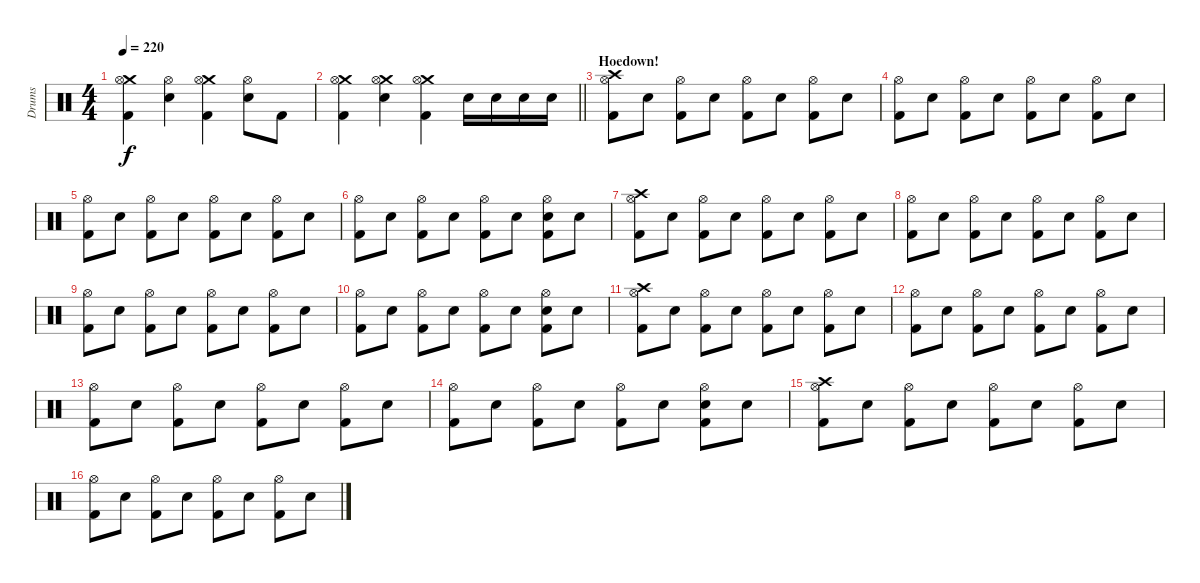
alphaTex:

\track ("Drums" "Drums") {instrument percussion}
\staff {score}
\articulation defaults
\ts (4 4)
\tempo 220
\clef neutral
\ks c
("Crash medium (hit)" "Hi-Hat (open)" "Kick (hit) 2").4{dy f} ("Hi-Hat (open)" "Snare (hit) 2").4 ("Crash medium (hit)" "Hi-Hat (open)" "Kick (hit) 2").4 ("Hi-Hat (open)" "Snare (hit) 2").8 "Kick (hit) 2".8 |
\barLineRight lightlight
("Crash medium (hit)" "Hi-Hat (open)" "Kick (hit) 2").4 ("Crash medium (hit)" "Hi-Hat (open)" "Snare (hit) 2").4 ("Crash medium (hit)" "Hi-Hat (open)" "Kick (hit) 2").4 "Snare (hit) 2".16 "Snare (hit) 2".16 "Snare (hit) 2".16 "Snare (hit) 2".16 |
\section ("" "Hoedown!")
("Crash high (hit)" "Hi-Hat (open)" "Kick (hit) 2").8 "Snare (hit) 2".8 ("Hi-Hat (open)" "Kick (hit) 2").8 "Snare (hit) 2".8 ("Hi-Hat (open)" "Kick (hit) 2").8 "Snare (hit) 2".8 ("Hi-Hat (open)" "Kick (hit) 2").8 "Snare (hit) 2".8 |
("Hi-Hat (open)" "Kick (hit) 2").8 "Snare (hit) 2".8 ("Hi-Hat (open)" "Kick (hit) 2").8 "Snare (hit) 2".8 ("Hi-Hat (open)" "Kick (hit) 2").8 "Snare (hit) 2".8 ("Hi-Hat (open)" "Kick (hit) 2").8 "Snare (hit) 2".8 |
("Hi-Hat (open)" "Kick (hit) 2").8 "Snare (hit) 2".8 ("Hi-Hat (open)" "Kick (hit) 2").8 "Snare (hit) 2".8 ("Hi-Hat (open)" "Kick (hit) 2").8 "Snare (hit) 2".8 ("Hi-Hat (open)" "Kick (hit) 2").8 "Snare (hit) 2".8 |
("Hi-Hat (open)" "Kick (hit) 2").8 "Snare (hit) 2".8 ("Hi-Hat (open)" "Kick (hit) 2").8 "Snare (hit) 2".8 ("Hi-Hat (open)" "Kick (hit) 2").8 "Snare (hit) 2".8 ("Hi-Hat (open)" "Snare (hit) 2" "Kick (hit) 2").8 "Snare (hit) 2".8 |
("Crash high (hit)" "Hi-Hat (open)" "Kick (hit) 2").8 "Snare (hit) 2".8 ("Hi-Hat (open)" "Kick (hit) 2").8 "Snare (hit) 2".8 ("Hi-Hat (open)" "Kick (hit) 2").8 "Snare (hit) 2".8 ("Hi-Hat (open)" "Kick (hit) 2").8 "Snare (hit) 2".8 |
("Hi-Hat (open)" "Kick (hit) 2").8 "Snare (hit) 2".8 ("Hi-Hat (open)" "Kick (hit) 2").8 "Snare (hit) 2".8 ("Hi-Hat (open)" "Kick (hit) 2").8 "Snare (hit) 2".8 ("Hi-Hat (open)" "Kick (hit) 2").8 "Snare (hit) 2".8 |
("Hi-Hat (open)" "Kick (hit) 2").8 "Snare (hit) 2".8 ("Hi-Hat (open)" "Kick (hit) 2").8 "Snare (hit) 2".8 ("Hi-Hat (open)" "Kick (hit) 2").8 "Snare (hit) 2".8 ("Hi-Hat (open)" "Kick (hit) 2").8 "Snare (hit) 2".8 |
("Hi-Hat (open)" "Kick (hit) 2").8 "Snare (hit) 2".8 ("Hi-Hat (open)" "Kick (hit) 2").8 "Snare (hit) 2".8 ("Hi-Hat (open)" "Kick (hit) 2").8 "Snare (hit) 2".8 ("Hi-Hat (open)" "Snare (hit) 2" "Kick (hit) 2").8 "Snare (hit) 2".8 |
("Crash high (hit)" "Hi-Hat (open)" "Kick (hit) 2").8 "Snare (hit) 2".8 ("Hi-Hat (open)" "Kick (hit) 2").8 "Snare (hit) 2".8 ("Hi-Hat (open)" "Kick (hit) 2").8 "Snare (hit) 2".8 ("Hi-Hat (open)" "Kick (hit) 2").8 "Snare (hit) 2".8 |
("Hi-Hat (open)" "Kick (hit) 2").8 "Snare (hit) 2".8 ("Hi-Hat (open)" "Kick (hit) 2").8 "Snare (hit) 2".8 ("Hi-Hat (open)" "Kick (hit) 2").8 "Snare (hit) 2".8 ("Hi-Hat (open)" "Kick (hit) 2").8 "Snare (hit) 2".8 |
("Hi-Hat (open)" "Kick (hit) 2").8 "Snare (hit) 2".8 ("Hi-Hat (open)" "Kick (hit) 2").8 "Snare (hit) 2".8 ("Hi-Hat (open)" "Kick (hit) 2").8 "Snare (hit) 2".8 ("Hi-Hat (open)" "Kick (hit) 2").8 "Snare (hit) 2".8 |
("Hi-Hat (open)" "Kick (hit) 2").8 "Snare (hit) 2".8 ("Hi-Hat (open)" "Kick (hit) 2").8 "Snare (hit) 2".8 ("Hi-Hat (open)" "Kick (hit) 2").8 "Snare (hit) 2".8 ("Hi-Hat (open)" "Snare (hit) 2" "Kick (hit) 2").8 "Snare (hit) 2".8 |
("Crash high (hit)" "Hi-Hat (open)" "Kick (hit) 2").8 "Snare (hit) 2".8 ("Hi-Hat (open)" "Kick (hit) 2").8 "Snare (hit) 2".8 ("Hi-Hat (open)" "Kick (hit) 2").8 "Snare (hit) 2".8 ("Hi-Hat (open)" "Kick (hit) 2").8 "Snare (hit) 2".8 |
("Hi-Hat (open)" "Kick (hit) 2").8 "Snare (hit) 2".8 ("Hi-Hat (open)" "Kick (hit) 2").8 "Snare (hit) 2".8 ("Hi-Hat (open)" "Kick (hit) 2").8 "Snare (hit) 2".8 ("Hi-Hat (open)" "Kick (hit) 2").8 "Snare (hit) 2".8
